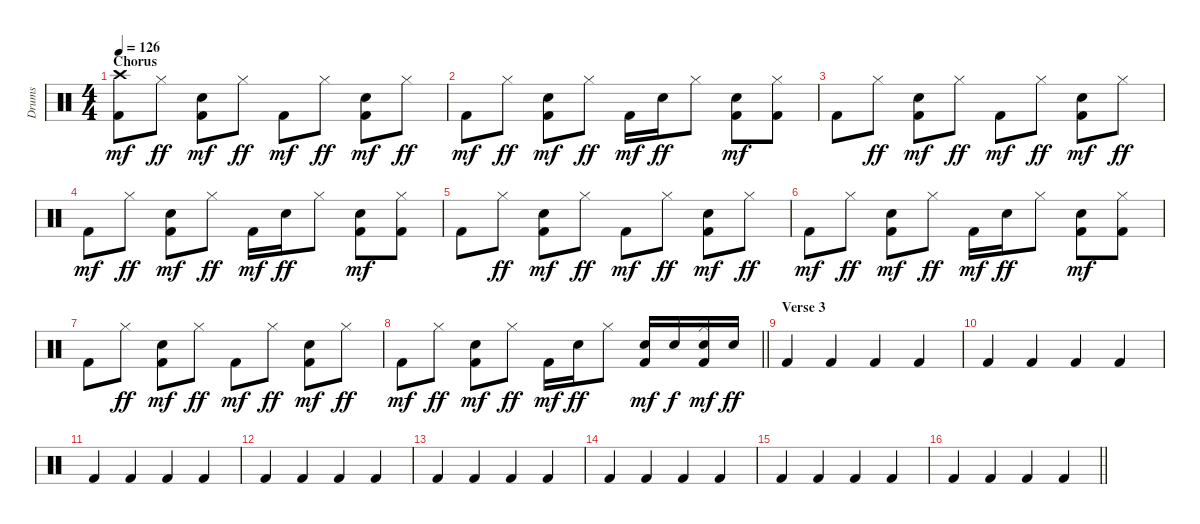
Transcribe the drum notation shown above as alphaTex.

\track ("Drums" "Drums") {instrument percussion}
\staff {score}
\articulation defaults
\ts (4 4)
\section ("" "Chorus")
\tempo 126
\clef neutral
\ks c
("Crash high (hit)" "Kick (hit) 2").8{dy mf} "Hi-Hat (closed)".8{dy ff} ("Electric Snare (hit)" "Kick (hit) 2").8{dy mf} "Hi-Hat (closed)".8{dy ff} "Kick (hit) 2".8{dy mf} "Hi-Hat (closed)".8{dy ff} ("Electric Snare (hit)" "Kick (hit) 2").8{dy mf} "Hi-Hat (closed)".8{dy ff} |
"Kick (hit) 2".8{dy mf} "Hi-Hat (closed)".8{dy ff} ("Electric Snare (hit)" "Kick (hit) 2").8{dy mf} "Hi-Hat (closed)".8{dy ff} "Kick (hit) 2".16{dy mf} "Electric Snare (hit)".16{dy ff} "Hi-Hat (closed)".8 ("Electric Snare (hit)" "Kick (hit) 2").8{dy mf} ("Hi-Hat (closed)" "Kick (hit) 2").8 |
"Kick (hit) 2".8 "Hi-Hat (closed)".8{dy ff} ("Electric Snare (hit)" "Kick (hit) 2").8{dy mf} "Hi-Hat (closed)".8{dy ff} "Kick (hit) 2".8{dy mf} "Hi-Hat (closed)".8{dy ff} ("Electric Snare (hit)" "Kick (hit) 2").8{dy mf} "Hi-Hat (closed)".8{dy ff} |
"Kick (hit) 2".8{dy mf} "Hi-Hat (closed)".8{dy ff} ("Electric Snare (hit)" "Kick (hit) 2").8{dy mf} "Hi-Hat (closed)".8{dy ff} "Kick (hit) 2".16{dy mf} "Electric Snare (hit)".16{dy ff} "Hi-Hat (closed)".8 ("Electric Snare (hit)" "Kick (hit) 2").8{dy mf} ("Hi-Hat (closed)" "Kick (hit) 2").8 |
"Kick (hit) 2".8 "Hi-Hat (closed)".8{dy ff} ("Electric Snare (hit)" "Kick (hit) 2").8{dy mf} "Hi-Hat (closed)".8{dy ff} "Kick (hit) 2".8{dy mf} "Hi-Hat (closed)".8{dy ff} ("Electric Snare (hit)" "Kick (hit) 2").8{dy mf} "Hi-Hat (closed)".8{dy ff} |
"Kick (hit) 2".8{dy mf} "Hi-Hat (closed)".8{dy ff} ("Electric Snare (hit)" "Kick (hit) 2").8{dy mf} "Hi-Hat (closed)".8{dy ff} "Kick (hit) 2".16{dy mf} "Electric Snare (hit)".16{dy ff} "Hi-Hat (closed)".8 ("Electric Snare (hit)" "Kick (hit) 2").8{dy mf} ("Hi-Hat (closed)" "Kick (hit) 2").8 |
"Kick (hit) 2".8 "Hi-Hat (closed)".8{dy ff} ("Electric Snare (hit)" "Kick (hit) 2").8{dy mf} "Hi-Hat (closed)".8{dy ff} "Kick (hit) 2".8{dy mf} "Hi-Hat (closed)".8{dy ff} ("Electric Snare (hit)" "Kick (hit) 2").8{dy mf} "Hi-Hat (closed)".8{dy ff} |
\barLineRight lightlight "Kick (hit) 2".8{dy mf} "Hi-Hat (closed)".8{dy ff}
("Electric Snare (hit)" "Kick (hit) 2").8{dy mf} "Hi-Hat (closed)".8{dy ff} "Kick (hit) 2".16{dy mf} "Electric Snare (hit)".16{dy ff} "Hi-Hat (closed)".8 ("Electric Snare (hit)" "Kick (hit) 2").16{dy mf} "Electric Snare (hit)".16{dy f} ("Hi-Hat (closed)" "Electric Snare (hit)" "Kick (hit) 2").16{dy mf} "Electric Snare (hit)".16{dy ff} |
\section ("" "Verse 3")
"Kick (hit) 2".4 "Kick (hit) 2".4 "Kick (hit) 2".4 "Kick (hit) 2".4 |
"Kick (hit) 2".4 "Kick (hit) 2".4 "Kick (hit) 2".4 "Kick (hit) 2".4 |
"Kick (hit) 2".4 "Kick (hit) 2".4 "Kick (hit) 2".4 "Kick (hit) 2".4 |
"Kick (hit) 2".4 "Kick (hit) 2".4 "Kick (hit) 2".4 "Kick (hit) 2".4 |
"Kick (hit) 2".4 "Kick (hit) 2".4 "Kick (hit) 2".4 "Kick (hit) 2".4 |
"Kick (hit) 2".4 "Kick (hit) 2".4 "Kick (hit) 2".4 "Kick (hit) 2".4 |
"Kick (hit) 2".4 "Kick (hit) 2".4 "Kick (hit) 2".4 "Kick (hit) 2".4 |
\barLineRight lightlight "Kick (hit) 2".4 "Kick (hit) 2".4 "Kick (hit) 2".4 "Kick (hit) 2".4
